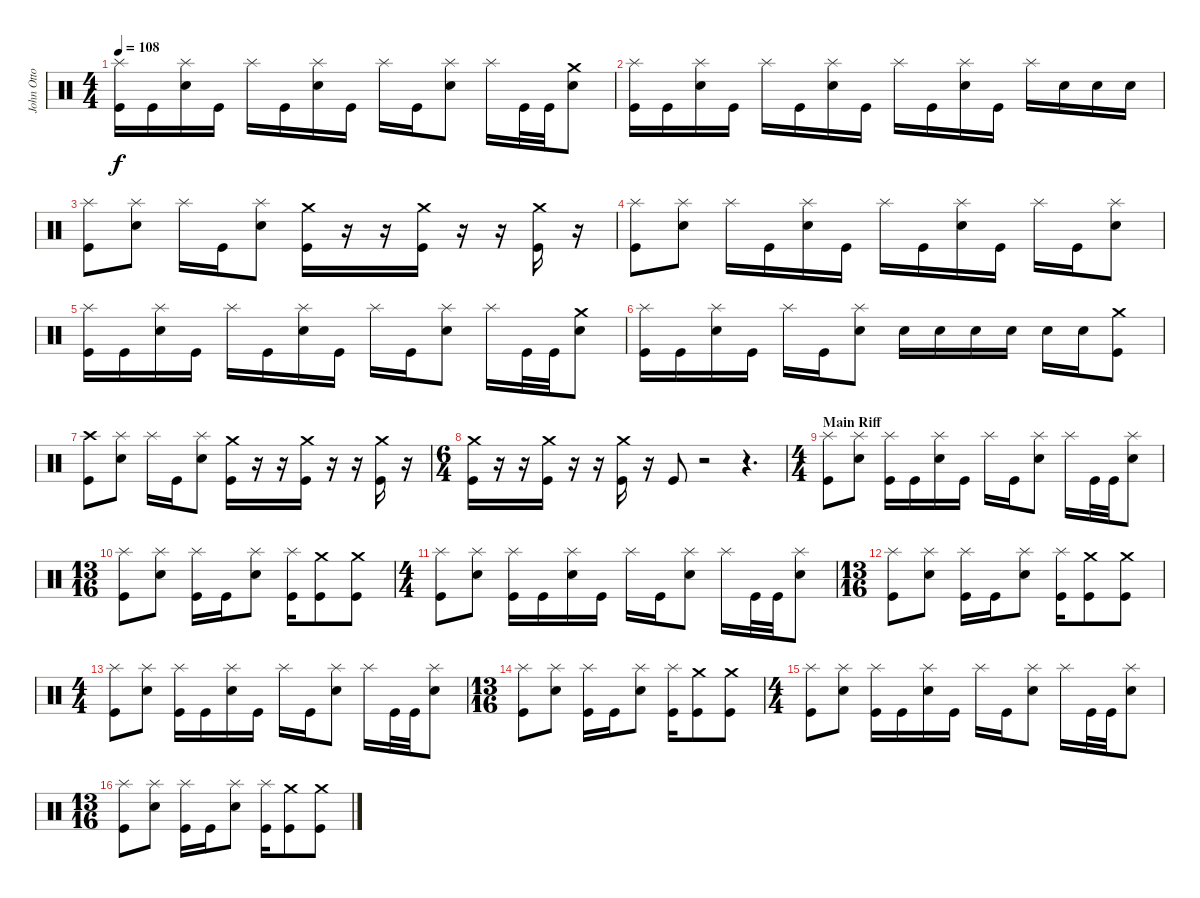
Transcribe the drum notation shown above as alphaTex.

\track ("John Otto" "John Otto") {instrument percussion}
\staff {score}
\articulation defaults
\ts (4 4)
\tempo 108
\clef neutral
\ks c
("Splash (hit)" "Kick (hit)").16{dy f} "Kick (hit)".16 ("Splash (hit)" "Electric Snare (hit)").16 "Kick (hit)".16 "Splash (hit)".16 "Kick (hit)".16 ("Splash (hit)" "Electric Snare (hit)").16 "Kick (hit)".16 "Splash (hit)".16 "Kick (hit)".16 ("Splash (hit)" "Electric Snare (hit)").8 "Splash (hit)".16 "Kick (hit)".32 "Kick (hit)".32 ("Crash medium (hit)" "Electric Snare (hit)").8 |
("Splash (hit)" "Kick (hit)").16 "Kick (hit)".16 ("Splash (hit)" "Electric Snare (hit)").16 "Kick (hit)".16 "Splash (hit)".16 "Kick (hit)".16 ("Splash (hit)" "Electric Snare (hit)").16 "Kick (hit)".16 "Splash (hit)".16 "Kick (hit)".16 ("Splash (hit)" "Electric Snare (hit)").16 "Kick (hit)".16 "Splash (hit)".16 "Electric Snare (hit)".16 "Electric Snare (hit)".16 "Electric Snare (hit)".16 |
("Splash (hit)" "Kick (hit)").8 ("Splash (hit)" "Electric Snare (hit)").8 "Splash (hit)".16 "Kick (hit)".16 ("Splash (hit)" "Electric Snare (hit)").8 ("Crash medium (hit)" "Kick (hit)").16 r.16 r.16 ("Crash medium (hit)" "Kick (hit)").16 r.16 r.16 ("Crash medium (hit)" "Kick (hit)").16 r.16 |
("Splash (hit)" "Kick (hit)").8 ("Splash (hit)" "Electric Snare (hit)").8 "Splash (hit)".16 "Kick (hit)".16 ("Splash (hit)" "Electric Snare (hit)").16 "Kick (hit)".16 "Splash (hit)".16 "Kick (hit)".16 ("Splash (hit)" "Electric Snare (hit)").16 "Kick (hit)".16 "Splash (hit)".16 "Kick (hit)".16 ("Splash (hit)" "Electric Snare (hit)").8 |
("Splash (hit)" "Kick (hit)").16 "Kick (hit)".16 ("Splash (hit)" "Electric Snare (hit)").16 "Kick (hit)".16 "Splash (hit)".16 "Kick (hit)".16 ("Splash (hit)" "Electric Snare (hit)").16 "Kick (hit)".16 "Splash (hit)".16 "Kick (hit)".16 ("Splash (hit)" "Electric Snare (hit)").8 "Splash (hit)".16 "Kick (hit)".32 "Kick (hit)".32 ("Crash medium (hit)" "Electric Snare (hit)").8 |
("Splash (hit)" "Kick (hit)").16 "Kick (hit)".16 ("Splash (hit)" "Electric Snare (hit)").16 "Kick (hit)".16 "Splash (hit)".16 "Kick (hit)".16 ("Splash (hit)" "Electric Snare (hit)").8 "Electric Snare (hit)".16 "Electric Snare (hit)".16 "Electric Snare (hit)".16 "Electric Snare (hit)".16 "Electric Snare (hit)".16 "Electric Snare (hit)".16 ("Crash medium (hit)" "Kick (hit)").8 |
("Crash high (hit)" "Kick (hit)").8 ("Splash (hit)" "Electric Snare (hit)").8 "Splash (hit)".16 "Kick (hit)".16 ("Splash (hit)" "Electric Snare (hit)").8 ("Crash medium (hit)" "Kick (hit)").16 r.16 r.16 ("Crash medium (hit)" "Kick (hit)").16 r.16 r.16 ("Crash medium (hit)" "Kick (hit)").16 r.16 |
\ts (6 4)
("Crash medium (hit)" "Kick (hit)").16 r.16 r.16 ("Crash medium (hit)" "Kick (hit)").16 r.16 r.16 ("Crash medium (hit)" "Kick (hit)").16 r.16 "Kick (hit)".8 r.2 r.4{d} |
\ts (4 4)
\section ("" "Main Riff")
("Splash (hit)" "Kick (hit)").8 ("Splash (hit)" "Electric Snare (hit)").8 ("Splash (hit)" "Kick (hit)").16 "Kick (hit)".16 ("Splash (hit)" "Electric Snare (hit)").16 "Kick (hit)".16 "Splash (hit)".16 "Kick (hit)".16 ("Splash (hit)" "Electric Snare (hit)").8 "Splash (hit)".16 "Kick (hit)".32 "Kick (hit)".32 ("Splash (hit)" "Electric Snare (hit)").8 |
\ts (13 16)
("Splash (hit)" "Kick (hit)").8 ("Splash (hit)" "Electric Snare (hit)").8 ("Splash (hit)" "Kick (hit)").16 "Kick (hit)".16 ("Splash (hit)" "Electric Snare (hit)").8 ("Splash (hit)" "Kick (hit)").16 ("Crash medium (hit)" "Kick (hit)").8 ("Crash medium (hit)" "Kick (hit)").8 |
\ts (4 4)
("Splash (hit)" "Kick (hit)").8 ("Splash (hit)" "Electric Snare (hit)").8 ("Splash (hit)" "Kick (hit)").16 "Kick (hit)".16 ("Splash (hit)" "Electric Snare (hit)").16 "Kick (hit)".16 "Splash (hit)".16 "Kick (hit)".16 ("Splash (hit)" "Electric Snare (hit)").8 "Splash (hit)".16 "Kick (hit)".32 "Kick (hit)".32 ("Splash (hit)" "Electric Snare (hit)").8 |
\ts (13 16)
("Splash (hit)" "Kick (hit)").8 ("Splash (hit)" "Electric Snare (hit)").8 ("Splash (hit)" "Kick (hit)").16 "Kick (hit)".16 ("Splash (hit)" "Electric Snare (hit)").8 ("Splash (hit)" "Kick (hit)").16 ("Crash medium (hit)" "Kick (hit)").8 ("Crash medium (hit)" "Kick (hit)").8 |
\ts (4 4)
("Splash (hit)" "Kick (hit)").8 ("Splash (hit)" "Electric Snare (hit)").8 ("Splash (hit)" "Kick (hit)").16 "Kick (hit)".16 ("Splash (hit)" "Electric Snare (hit)").16 "Kick (hit)".16 "Splash (hit)".16 "Kick (hit)".16 ("Splash (hit)" "Electric Snare (hit)").8 "Splash (hit)".16 "Kick (hit)".32 "Kick (hit)".32 ("Splash (hit)" "Electric Snare (hit)").8 |
\ts (13 16)
("Splash (hit)" "Kick (hit)").8 ("Splash (hit)" "Electric Snare (hit)").8 ("Splash (hit)" "Kick (hit)").16 "Kick (hit)".16 ("Splash (hit)" "Electric Snare (hit)").8 ("Splash (hit)" "Kick (hit)").16 ("Crash medium (hit)" "Kick (hit)").8 ("Crash medium (hit)" "Kick (hit)").8 |
\ts (4 4)
("Splash (hit)" "Kick (hit)").8 ("Splash (hit)" "Electric Snare (hit)").8 ("Splash (hit)" "Kick (hit)").16 "Kick (hit)".16 ("Splash (hit)" "Electric Snare (hit)").16 "Kick (hit)".16 "Splash (hit)".16 "Kick (hit)".16 ("Splash (hit)" "Electric Snare (hit)").8 "Splash (hit)".16 "Kick (hit)".32 "Kick (hit)".32 ("Splash (hit)" "Electric Snare (hit)").8 |
\ts (13 16)
("Splash (hit)" "Kick (hit)").8 ("Splash (hit)" "Electric Snare (hit)").8 ("Splash (hit)" "Kick (hit)").16 "Kick (hit)".16 ("Splash (hit)" "Electric Snare (hit)").8 ("Splash (hit)" "Kick (hit)").16 ("Crash medium (hit)" "Kick (hit)").8 ("Crash medium (hit)" "Kick (hit)").8
